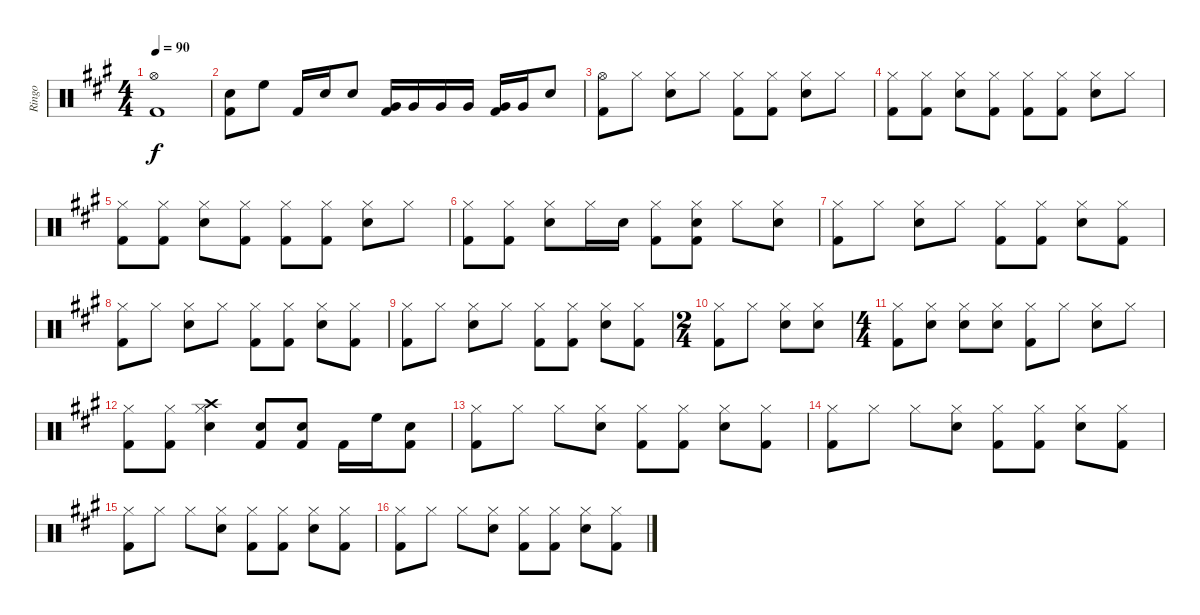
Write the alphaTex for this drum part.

\track ("Ringo" "Ringo") {instrument percussion}
\staff {score}
\articulation defaults
\ts (4 4)
\tempo 90
\clef neutral
\ks a
("Hi-Hat (open)" "Kick (hit) 2").1{dy f} |
("Snare (hit) 2" "Kick (hit) 2").8 "High Floor Tom (hit)".8 "Kick (hit) 2".16 "Snare (hit) 2".16 "Snare (hit) 2".8 ("Very Low Tom (hit)" "Kick (hit) 2").16 "Very Low Tom (hit)".16 "Very Low Tom (hit)".16 "Very Low Tom (hit)".16 ("Very Low Tom (hit)" "Kick (hit) 2").16 "Very Low Tom (hit)".16 "Snare (hit) 2".8 |
("Hi-Hat (open)" "Kick (hit) 2").8 "Hi-Hat (closed)".8 ("Hi-Hat (closed)" "Snare (hit) 2").8 "Hi-Hat (closed)".8 ("Hi-Hat (closed)" "Kick (hit) 2").8 ("Hi-Hat (closed)" "Kick (hit) 2").8 ("Hi-Hat (closed)" "Snare (hit) 2").8 "Hi-Hat (closed)".8 |
("Hi-Hat (closed)" "Kick (hit) 2").8 ("Hi-Hat (closed)" "Kick (hit) 2").8 ("Hi-Hat (closed)" "Snare (hit) 2").8 ("Hi-Hat (closed)" "Kick (hit) 2").8 ("Hi-Hat (closed)" "Kick (hit) 2").8 ("Hi-Hat (closed)" "Kick (hit) 2").8 ("Hi-Hat (closed)" "Snare (hit) 2").8 "Hi-Hat (closed)".8 |
("Hi-Hat (closed)" "Kick (hit) 2").8 ("Hi-Hat (closed)" "Kick (hit) 2").8 ("Hi-Hat (closed)" "Snare (hit) 2").8 ("Hi-Hat (closed)" "Kick (hit) 2").8 ("Hi-Hat (closed)" "Kick (hit) 2").8 ("Hi-Hat (closed)" "Kick (hit) 2").8 ("Hi-Hat (closed)" "Snare (hit) 2").8 "Hi-Hat (closed)".8 |
("Hi-Hat (closed)" "Kick (hit) 2").8 ("Hi-Hat (closed)" "Kick (hit) 2").8 ("Hi-Hat (closed)" "Snare (hit) 2").8 "Hi-Hat (closed)".16 "Snare (hit) 2".16 ("Hi-Hat (closed)" "Kick (hit) 2").8 ("Hi-Hat (closed)" "Snare (hit) 2" "Kick (hit) 2").8 "Hi-Hat (closed)".8 ("Hi-Hat (closed)" "Snare (hit) 2").8 |
("Hi-Hat (closed)" "Kick (hit) 2").8 "Hi-Hat (closed)".8 ("Hi-Hat (closed)" "Snare (hit) 2").8 "Hi-Hat (closed)".8 ("Hi-Hat (closed)" "Kick (hit) 2").8 ("Hi-Hat (closed)" "Kick (hit) 2").8 ("Hi-Hat (closed)" "Snare (hit) 2").8 ("Hi-Hat (closed)" "Kick (hit) 2").8 |
("Hi-Hat (closed)" "Kick (hit) 2").8 "Hi-Hat (closed)".8 ("Hi-Hat (closed)" "Snare (hit) 2").8 "Hi-Hat (closed)".8 ("Hi-Hat (closed)" "Kick (hit) 2").8 ("Hi-Hat (closed)" "Kick (hit) 2").8 ("Hi-Hat (closed)" "Snare (hit) 2").8 ("Hi-Hat (closed)" "Kick (hit) 2").8 |
("Hi-Hat (closed)" "Kick (hit) 2").8 "Hi-Hat (closed)".8 ("Hi-Hat (closed)" "Snare (hit) 2").8 "Hi-Hat (closed)".8 ("Hi-Hat (closed)" "Kick (hit) 2").8 ("Hi-Hat (closed)" "Kick (hit) 2").8 ("Hi-Hat (closed)" "Snare (hit) 2").8 ("Hi-Hat (closed)" "Kick (hit) 2").8 |
\ts (2 4)
("Hi-Hat (closed)" "Kick (hit) 2").8 "Hi-Hat (closed)".8 ("Hi-Hat (closed)" "Snare (hit) 2").8 ("Hi-Hat (closed)" "Snare (hit) 2").8 |
\ts (4 4)
("Hi-Hat (closed)" "Kick (hit) 2").8 ("Hi-Hat (closed)" "Snare (hit) 2").8 ("Hi-Hat (closed)" "Snare (hit) 2").8 ("Hi-Hat (closed)" "Snare (hit) 2").8 ("Hi-Hat (closed)" "Kick (hit) 2").8 "Hi-Hat (closed)".8 ("Hi-Hat (closed)" "Snare (hit) 2").8 "Hi-Hat (closed)".8 |
("Hi-Hat (closed)" "Kick (hit) 2").8 ("Hi-Hat (closed)" "Kick (hit) 2").8 ("Hi-Hat (closed)" "Crash high (hit)" "Snare (hit) 2").4 ("Snare (hit) 2" "Kick (hit) 2").8 ("Snare (hit) 2" "Kick (hit) 2").8 "Kick (hit) 2".16 "High Floor Tom (hit)".16 ("Snare (hit) 2" "Kick (hit) 2").8 |
("Hi-Hat (closed)" "Kick (hit) 2").8 "Hi-Hat (closed)".8 "Hi-Hat (closed)".8 ("Hi-Hat (closed)" "Snare (hit) 2").8 ("Hi-Hat (closed)" "Kick (hit) 2").8 ("Hi-Hat (closed)" "Kick (hit) 2").8 ("Hi-Hat (closed)" "Snare (hit) 2").8 ("Hi-Hat (closed)" "Kick (hit) 2").8 |
("Hi-Hat (closed)" "Kick (hit) 2").8 "Hi-Hat (closed)".8 "Hi-Hat (closed)".8 ("Hi-Hat (closed)" "Snare (hit) 2").8 ("Hi-Hat (closed)" "Kick (hit) 2").8 ("Hi-Hat (closed)" "Kick (hit) 2").8 ("Hi-Hat (closed)" "Snare (hit) 2").8 ("Hi-Hat (closed)" "Kick (hit) 2").8 |
("Hi-Hat (closed)" "Kick (hit) 2").8 "Hi-Hat (closed)".8 "Hi-Hat (closed)".8 ("Hi-Hat (closed)" "Snare (hit) 2").8 ("Hi-Hat (closed)" "Kick (hit) 2").8 ("Hi-Hat (closed)" "Kick (hit) 2").8 ("Hi-Hat (closed)" "Snare (hit) 2").8 ("Hi-Hat (closed)" "Kick (hit) 2").8 |
("Hi-Hat (closed)" "Kick (hit) 2").8 "Hi-Hat (closed)".8 "Hi-Hat (closed)".8 ("Hi-Hat (closed)" "Snare (hit) 2").8 ("Hi-Hat (closed)" "Kick (hit) 2").8 ("Hi-Hat (closed)" "Kick (hit) 2").8 ("Hi-Hat (closed)" "Snare (hit) 2").8 ("Hi-Hat (closed)" "Kick (hit) 2").8
